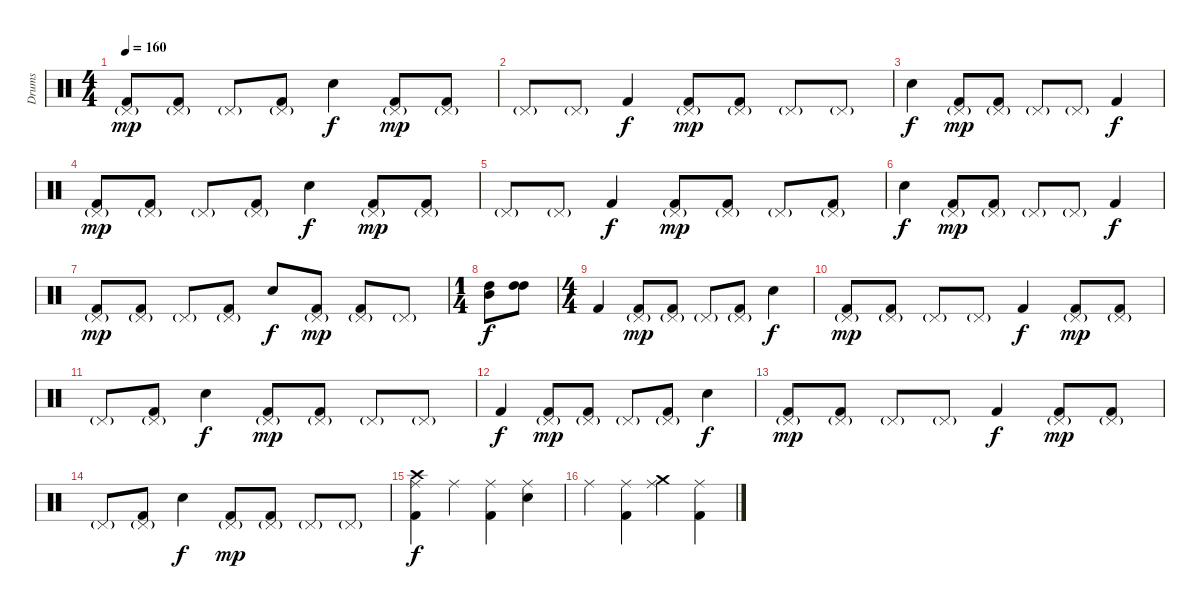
\track ("Drums" "Drums") {instrument percussion}
\staff {score}
\articulation defaults
\ts (4 4)
\tempo 160
\clef neutral
\ks c
("Pedal Hi-Hat (hit)"{g} "Kick (hit) 2").8{dy mp} ("Pedal Hi-Hat (hit)"{g} "Kick (hit) 2").8 "Pedal Hi-Hat (hit)"{g}.8 ("Pedal Hi-Hat (hit)"{g} "Kick (hit) 2").8 "Electric Snare (hit)".4{dy f} ("Pedal Hi-Hat (hit)"{g} "Kick (hit) 2").8{dy mp} ("Pedal Hi-Hat (hit)"{g} "Kick (hit) 2").8 |
"Pedal Hi-Hat (hit)"{g}.8 "Pedal Hi-Hat (hit)"{g}.8 "Kick (hit) 2".4{dy f} ("Pedal Hi-Hat (hit)"{g} "Kick (hit) 2").8{dy mp} ("Pedal Hi-Hat (hit)"{g} "Kick (hit) 2").8 "Pedal Hi-Hat (hit)"{g}.8 "Pedal Hi-Hat (hit)"{g}.8 |
"Electric Snare (hit)".4{dy f} ("Pedal Hi-Hat (hit)"{g} "Kick (hit) 2").8{dy mp} ("Pedal Hi-Hat (hit)"{g} "Kick (hit) 2").8 "Pedal Hi-Hat (hit)"{g}.8 "Pedal Hi-Hat (hit)"{g}.8 "Kick (hit) 2".4{dy f} |
("Pedal Hi-Hat (hit)"{g} "Kick (hit) 2").8{dy mp} ("Pedal Hi-Hat (hit)"{g} "Kick (hit) 2").8 "Pedal Hi-Hat (hit)"{g}.8 ("Pedal Hi-Hat (hit)"{g} "Kick (hit) 2").8 "Electric Snare (hit)".4{dy f} ("Pedal Hi-Hat (hit)"{g} "Kick (hit) 2").8{dy mp} ("Pedal Hi-Hat (hit)"{g} "Kick (hit) 2").8 |
"Pedal Hi-Hat (hit)"{g}.8 "Pedal Hi-Hat (hit)"{g}.8 "Kick (hit) 2".4{dy f} ("Pedal Hi-Hat (hit)"{g} "Kick (hit) 2").8{dy mp} ("Pedal Hi-Hat (hit)"{g} "Kick (hit) 2").8 "Pedal Hi-Hat (hit)"{g}.8 ("Pedal Hi-Hat (hit)"{g} "Kick (hit) 2").8 |
"Electric Snare (hit)".4{dy f} ("Pedal Hi-Hat (hit)"{g} "Kick (hit) 2").8{dy mp} ("Pedal Hi-Hat (hit)"{g} "Kick (hit) 2").8 "Pedal Hi-Hat (hit)"{g}.8 "Pedal Hi-Hat (hit)"{g}.8 "Kick (hit) 2".4{dy f} |
("Pedal Hi-Hat (hit)"{g} "Kick (hit) 2").8{dy mp} ("Pedal Hi-Hat (hit)"{g} "Kick (hit) 2").8 "Pedal Hi-Hat (hit)"{g}.8 ("Pedal Hi-Hat (hit)"{g} "Kick (hit) 2").8 "Electric Snare (hit)".8{dy f} ("Pedal Hi-Hat (hit)"{g} "Kick (hit) 2").8{dy mp} ("Pedal Hi-Hat (hit)"{g} "Kick (hit) 2").8 "Pedal Hi-Hat (hit)"{g}.8 |
\ts (1 4)
("High Tom (hit)" "Mid Tom (hit)").8{dy f} ("High Tom (hit)" "High Tom (hit)").8 |
\ts (4 4)
"Kick (hit) 2".4 ("Pedal Hi-Hat (hit)"{g} "Kick (hit) 2").8{dy mp} ("Pedal Hi-Hat (hit)"{g} "Kick (hit) 2").8 "Pedal Hi-Hat (hit)"{g}.8 ("Pedal Hi-Hat (hit)"{g} "Kick (hit) 2").8 "Electric Snare (hit)".4{dy f} |
("Pedal Hi-Hat (hit)"{g} "Kick (hit) 2").8{dy mp} ("Pedal Hi-Hat (hit)"{g} "Kick (hit) 2").8 "Pedal Hi-Hat (hit)"{g}.8 "Pedal Hi-Hat (hit)"{g}.8 "Kick (hit) 2".4{dy f} ("Pedal Hi-Hat (hit)"{g} "Kick (hit) 2").8{dy mp} ("Pedal Hi-Hat (hit)"{g} "Kick (hit) 2").8 |
"Pedal Hi-Hat (hit)"{g}.8 ("Pedal Hi-Hat (hit)"{g} "Kick (hit) 2").8 "Electric Snare (hit)".4{dy f} ("Pedal Hi-Hat (hit)"{g} "Kick (hit) 2").8{dy mp} ("Pedal Hi-Hat (hit)"{g} "Kick (hit) 2").8 "Pedal Hi-Hat (hit)"{g}.8 "Pedal Hi-Hat (hit)"{g}.8 |
"Kick (hit) 2".4{dy f} ("Pedal Hi-Hat (hit)"{g} "Kick (hit) 2").8{dy mp} ("Pedal Hi-Hat (hit)"{g} "Kick (hit) 2").8 "Pedal Hi-Hat (hit)"{g}.8 ("Pedal Hi-Hat (hit)"{g} "Kick (hit) 2").8 "Electric Snare (hit)".4{dy f} |
("Pedal Hi-Hat (hit)"{g} "Kick (hit) 2").8{dy mp} ("Pedal Hi-Hat (hit)"{g} "Kick (hit) 2").8 "Pedal Hi-Hat (hit)"{g}.8 "Pedal Hi-Hat (hit)"{g}.8 "Kick (hit) 2".4{dy f} ("Pedal Hi-Hat (hit)"{g} "Kick (hit) 2").8{dy mp} ("Pedal Hi-Hat (hit)"{g} "Kick (hit) 2").8 |
"Pedal Hi-Hat (hit)"{g}.8 ("Pedal Hi-Hat (hit)"{g} "Kick (hit) 2").8 "Electric Snare (hit)".4{dy f} ("Pedal Hi-Hat (hit)"{g} "Kick (hit) 2").8{dy mp} ("Pedal Hi-Hat (hit)"{g} "Kick (hit) 2").8 "Pedal Hi-Hat (hit)"{g}.8 "Pedal Hi-Hat (hit)"{g}.8 |
("Ride (middle)" "Crash high (hit)" "Kick (hit) 2").4{dy f} "Ride (middle)".4 ("Ride (middle)" "Kick (hit) 2").4 ("Ride (middle)" "Electric Snare (hit)").4 |
"Ride (middle)".4 ("Ride (middle)" "Kick (hit) 2").4 ("Ride (middle)" "Crash medium (hit)").4 ("Ride (middle)" "Kick (hit) 2").4
